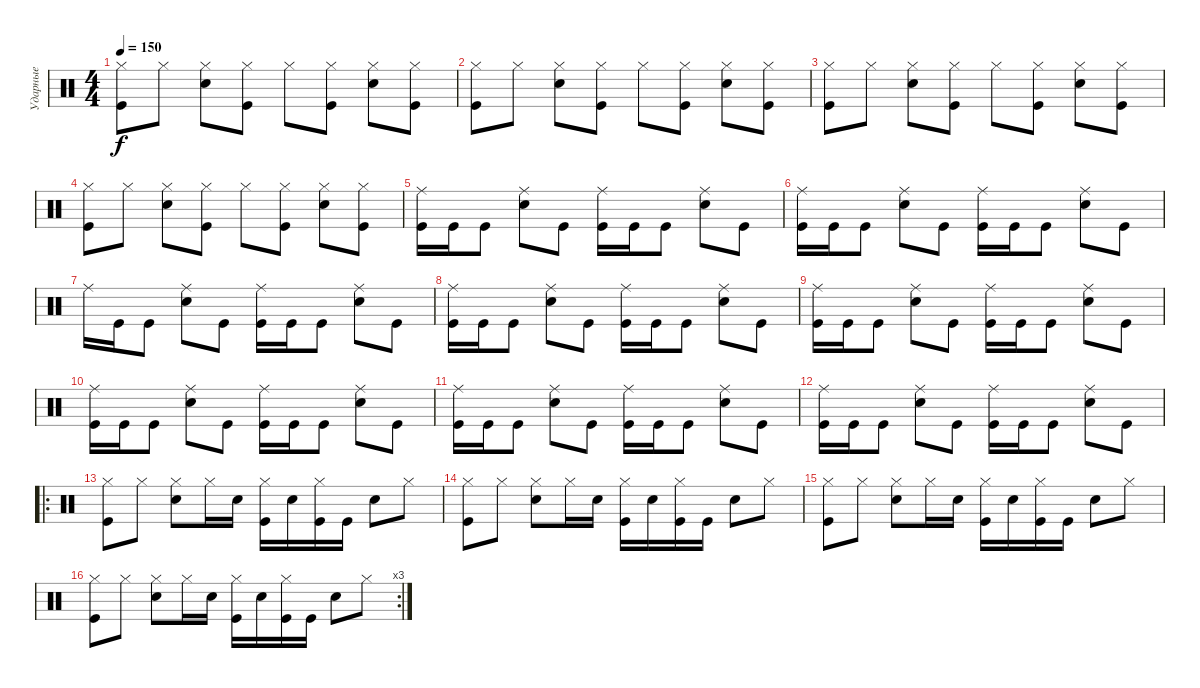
\track ("Ударные" "Ударные") {instrument percussion}
\staff {score}
\articulation defaults
\ts (4 4)
\tempo 150
\clef neutral
\ks c
("Hi-Hat (closed)" "Kick (hit)").8{dy f} "Hi-Hat (closed)".8 ("Hi-Hat (closed)" "Snare (hit) 2").8 ("Hi-Hat (closed)" "Kick (hit)").8 "Hi-Hat (closed)".8 ("Hi-Hat (closed)" "Kick (hit)").8 ("Hi-Hat (closed)" "Snare (hit) 2").8 ("Hi-Hat (closed)" "Kick (hit)").8 |
("Hi-Hat (closed)" "Kick (hit)").8 "Hi-Hat (closed)".8 ("Hi-Hat (closed)" "Snare (hit) 2").8 ("Hi-Hat (closed)" "Kick (hit)").8 "Hi-Hat (closed)".8 ("Hi-Hat (closed)" "Kick (hit)").8 ("Hi-Hat (closed)" "Snare (hit) 2").8 ("Hi-Hat (closed)" "Kick (hit)").8 |
("Hi-Hat (closed)" "Kick (hit)").8 "Hi-Hat (closed)".8 ("Hi-Hat (closed)" "Snare (hit) 2").8 ("Hi-Hat (closed)" "Kick (hit)").8 "Hi-Hat (closed)".8 ("Hi-Hat (closed)" "Kick (hit)").8 ("Hi-Hat (closed)" "Snare (hit) 2").8 ("Hi-Hat (closed)" "Kick (hit)").8 |
("Kick (hit)" "Hi-Hat (closed)").8 "Hi-Hat (closed)".8 ("Hi-Hat (closed)" "Snare (hit) 2").8 ("Hi-Hat (closed)" "Kick (hit)").8 "Hi-Hat (closed)".8 ("Hi-Hat (closed)" "Kick (hit)").8 ("Hi-Hat (closed)" "Snare (hit) 2").8 ("Hi-Hat (closed)" "Kick (hit)").8 |
("Kick (hit)" "Ride (middle)").16 "Kick (hit)".16 "Kick (hit)".8 ("Snare (hit) 2" "Ride (middle)").8 "Kick (hit)".8 ("Kick (hit)" "Ride (middle)").16 "Kick (hit)".16 "Kick (hit)".8 ("Snare (hit) 2" "Ride (middle)").8 "Kick (hit)".8 |
("Kick (hit)" "Ride (middle)").16 "Kick (hit)".16 "Kick (hit)".8 ("Snare (hit) 2" "Ride (middle)").8 "Kick (hit)".8 ("Kick (hit)" "Ride (middle)").16 "Kick (hit)".16 "Kick (hit)".8 ("Snare (hit) 2" "Ride (middle)").8 "Kick (hit)".8 |
"Ride (middle)".16 "Kick (hit)".16 "Kick (hit)".8 ("Snare (hit) 2" "Ride (middle)").8 "Kick (hit)".8 ("Kick (hit)" "Ride (middle)").16 "Kick (hit)".16 "Kick (hit)".8 ("Snare (hit) 2" "Ride (middle)").8 "Kick (hit)".8 |
("Kick (hit)" "Ride (middle)").16 "Kick (hit)".16 "Kick (hit)".8 ("Snare (hit) 2" "Ride (middle)").8 "Kick (hit)".8 ("Kick (hit)" "Ride (middle)").16 "Kick (hit)".16 "Kick (hit)".8 ("Snare (hit) 2" "Ride (middle)").8 "Kick (hit)".8 |
("Kick (hit)" "Ride (middle)").16 "Kick (hit)".16 "Kick (hit)".8 ("Snare (hit) 2" "Ride (middle)").8 "Kick (hit)".8 ("Kick (hit)" "Ride (middle)").16 "Kick (hit)".16 "Kick (hit)".8 ("Snare (hit) 2" "Ride (middle)").8 "Kick (hit)".8 |
("Kick (hit)" "Ride (middle)").16 "Kick (hit)".16 "Kick (hit)".8 ("Snare (hit) 2" "Ride (middle)").8 "Kick (hit)".8 ("Kick (hit)" "Ride (middle)").16 "Kick (hit)".16 "Kick (hit)".8 ("Snare (hit) 2" "Ride (middle)").8 "Kick (hit)".8 |
("Kick (hit)" "Ride (middle)").16 "Kick (hit)".16 "Kick (hit)".8 ("Snare (hit) 2" "Ride (middle)").8 "Kick (hit)".8 ("Kick (hit)" "Ride (middle)").16 "Kick (hit)".16 "Kick (hit)".8 ("Snare (hit) 2" "Ride (middle)").8 "Kick (hit)".8 |
("Ride (middle)" "Kick (hit)").16 "Kick (hit)".16 "Kick (hit)".8 ("Ride (middle)" "Snare (hit) 2").8 "Kick (hit)".8 ("Ride (middle)" "Kick (hit)").16 "Kick (hit)".16 "Kick (hit)".8 ("Ride (middle)" "Snare (hit) 2").8 "Kick (hit)".8 |
\ro
("Hi-Hat (closed)" "Kick (hit)").8 "Hi-Hat (closed)".8 ("Hi-Hat (closed)" "Snare (hit) 2").8 "Hi-Hat (closed)".16 "Snare (hit) 2".16 ("Kick (hit)" "Hi-Hat (closed)").16 "Snare (hit) 2".16 ("Kick (hit)" "Hi-Hat (closed)").16 "Kick (hit)".16 "Snare (hit) 2".8 "Hi-Hat (closed)".8 |
("Hi-Hat (closed)" "Kick (hit)").8 "Hi-Hat (closed)".8 ("Hi-Hat (closed)" "Snare (hit) 2").8 "Hi-Hat (closed)".16 "Snare (hit) 2".16 ("Kick (hit)" "Hi-Hat (closed)").16 "Snare (hit) 2".16 ("Kick (hit)" "Hi-Hat (closed)").16 "Kick (hit)".16 "Snare (hit) 2".8 "Hi-Hat (closed)".8 |
("Hi-Hat (closed)" "Kick (hit)").8 "Hi-Hat (closed)".8 ("Hi-Hat (closed)" "Snare (hit) 2").8 "Hi-Hat (closed)".16 "Snare (hit) 2".16 ("Kick (hit)" "Hi-Hat (closed)").16 "Snare (hit) 2".16 ("Kick (hit)" "Hi-Hat (closed)").16 "Kick (hit)".16 "Snare (hit) 2".8 "Hi-Hat (closed)".8 |
\rc 3
("Hi-Hat (closed)" "Kick (hit)").8 "Hi-Hat (closed)".8 ("Hi-Hat (closed)" "Snare (hit) 2").8 "Hi-Hat (closed)".16 "Snare (hit) 2".16 ("Kick (hit)" "Hi-Hat (closed)").16 "Snare (hit) 2".16 ("Kick (hit)" "Hi-Hat (closed)").16 "Kick (hit)".16 "Snare (hit) 2".8 "Hi-Hat (closed)".8
